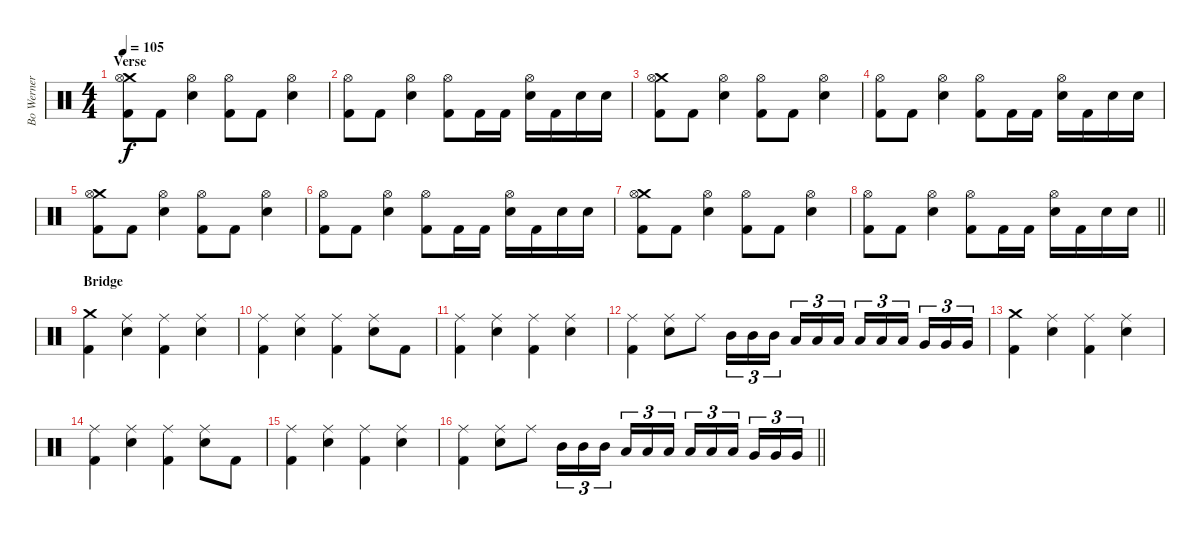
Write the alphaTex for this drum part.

\track ("Bo Werner" "Bo Werner") {instrument percussion}
\staff {score}
\articulation defaults
\ts (4 4)
\section ("" "Verse")
\tempo 105
\clef neutral
\ks c
("Crash medium (hit)" "Hi-Hat (open)" "Kick (hit) 2").8{dy f} "Kick (hit) 2".8 ("Hi-Hat (open)" "Snare (hit) 2").4 ("Hi-Hat (open)" "Kick (hit) 2").8 "Kick (hit) 2".8 ("Hi-Hat (open)" "Snare (hit) 2").4 |
("Hi-Hat (open)" "Kick (hit) 2").8 "Kick (hit) 2".8 ("Hi-Hat (open)" "Snare (hit) 2").4 ("Hi-Hat (open)" "Kick (hit) 2").8 "Kick (hit) 2".16 "Kick (hit) 2".16 ("Hi-Hat (open)" "Snare (hit) 2").16 "Kick (hit) 2".16 "Snare (hit) 2".16 "Snare (hit) 2".16 |
("Crash medium (hit)" "Hi-Hat (open)" "Kick (hit) 2").8 "Kick (hit) 2".8 ("Hi-Hat (open)" "Snare (hit) 2").4 ("Hi-Hat (open)" "Kick (hit) 2").8 "Kick (hit) 2".8 ("Hi-Hat (open)" "Snare (hit) 2").4 |
("Hi-Hat (open)" "Kick (hit) 2").8 "Kick (hit) 2".8 ("Hi-Hat (open)" "Snare (hit) 2").4 ("Hi-Hat (open)" "Kick (hit) 2").8 "Kick (hit) 2".16 "Kick (hit) 2".16 ("Hi-Hat (open)" "Snare (hit) 2").16 "Kick (hit) 2".16 "Snare (hit) 2".16 "Snare (hit) 2".16 |
("Crash medium (hit)" "Hi-Hat (open)" "Kick (hit) 2").8 "Kick (hit) 2".8 ("Hi-Hat (open)" "Snare (hit) 2").4 ("Hi-Hat (open)" "Kick (hit) 2").8 "Kick (hit) 2".8 ("Hi-Hat (open)" "Snare (hit) 2").4 |
("Hi-Hat (open)" "Kick (hit) 2").8 "Kick (hit) 2".8 ("Hi-Hat (open)" "Snare (hit) 2").4 ("Hi-Hat (open)" "Kick (hit) 2").8 "Kick (hit) 2".16 "Kick (hit) 2".16 ("Hi-Hat (open)" "Snare (hit) 2").16 "Kick (hit) 2".16 "Snare (hit) 2".16 "Snare (hit) 2".16 |
("Crash medium (hit)" "Hi-Hat (open)" "Kick (hit) 2").8 "Kick (hit) 2".8 ("Hi-Hat (open)" "Snare (hit) 2").4 ("Hi-Hat (open)" "Kick (hit) 2").8 "Kick (hit) 2".8 ("Hi-Hat (open)" "Snare (hit) 2").4 |
\barLineRight lightlight
("Hi-Hat (open)" "Kick (hit) 2").8 "Kick (hit) 2".8 ("Hi-Hat (open)" "Snare (hit) 2").4 ("Hi-Hat (open)" "Kick (hit) 2").8 "Kick (hit) 2".16 "Kick (hit) 2".16 ("Hi-Hat (open)" "Snare (hit) 2").16 "Kick (hit) 2".16 "Snare (hit) 2".16 "Snare (hit) 2".16 |
\section ("" "Bridge")
("Crash medium (hit)" "Kick (hit) 2").4 ("Ride (middle)" "Snare (hit) 2").4 ("Ride (middle)" "Kick (hit) 2").4 ("Ride (middle)" "Snare (hit) 2").4 |
("Ride (middle)" "Kick (hit) 2").4 ("Ride (middle)" "Snare (hit) 2").4 ("Ride (middle)" "Kick (hit) 2").4 ("Ride (middle)" "Snare (hit) 2").8 "Kick (hit) 2".8 |
("Ride (middle)" "Kick (hit) 2").4 ("Ride (middle)" "Snare (hit) 2").4 ("Ride (middle)" "Kick (hit) 2").4 ("Ride (middle)" "Snare (hit) 2").4 |
("Ride (middle)" "Kick (hit) 2").4 ("Ride (middle)" "Snare (hit) 2").8 "Ride (middle)".8 "Mid Tom (hit)".16{tu (3 2)} "Mid Tom (hit)".16{tu (3 2)} "Mid Tom (hit)".16{tu (3 2) beam splitsecondary} "Low Tom (hit)".16{tu (3 2)} "Low Tom (hit)".16{tu (3 2)} "Low Tom (hit)".16{tu (3 2)} "Low Floor Tom (hit)".16{tu (3 2)} "Low Floor Tom (hit)".16{tu (3 2)} "Low Floor Tom (hit)".16{tu (3 2) beam splitsecondary} "Very Low Tom (hit)".16{tu (3 2)} "Very Low Tom (hit)".16{tu (3 2)} "Very Low Tom (hit)".16{tu (3 2)} |
("Crash medium (hit)" "Kick (hit) 2").4 ("Ride (middle)" "Snare (hit) 2").4 ("Ride (middle)" "Kick (hit) 2").4 ("Ride (middle)" "Snare (hit) 2").4 |
("Ride (middle)" "Kick (hit) 2").4 ("Ride (middle)" "Snare (hit) 2").4 ("Ride (middle)" "Kick (hit) 2").4 ("Ride (middle)" "Snare (hit) 2").8 "Kick (hit) 2".8 |
("Ride (middle)" "Kick (hit) 2").4 ("Ride (middle)" "Snare (hit) 2").4 ("Ride (middle)" "Kick (hit) 2").4 ("Ride (middle)" "Snare (hit) 2").4 |
\barLineRight lightlight
("Ride (middle)" "Kick (hit) 2").4 ("Ride (middle)" "Snare (hit) 2").8 "Ride (middle)".8 "Mid Tom (hit)".16{tu (3 2)} "Mid Tom (hit)".16{tu (3 2)} "Mid Tom (hit)".16{tu (3 2) beam splitsecondary} "Low Tom (hit)".16{tu (3 2)} "Low Tom (hit)".16{tu (3 2)} "Low Tom (hit)".16{tu (3 2)} "Low Floor Tom (hit)".16{tu (3 2)} "Low Floor Tom (hit)".16{tu (3 2)} "Low Floor Tom (hit)".16{tu (3 2) beam splitsecondary} "Very Low Tom (hit)".16{tu (3 2)} "Very Low Tom (hit)".16{tu (3 2)} "Very Low Tom (hit)".16{tu (3 2)}
